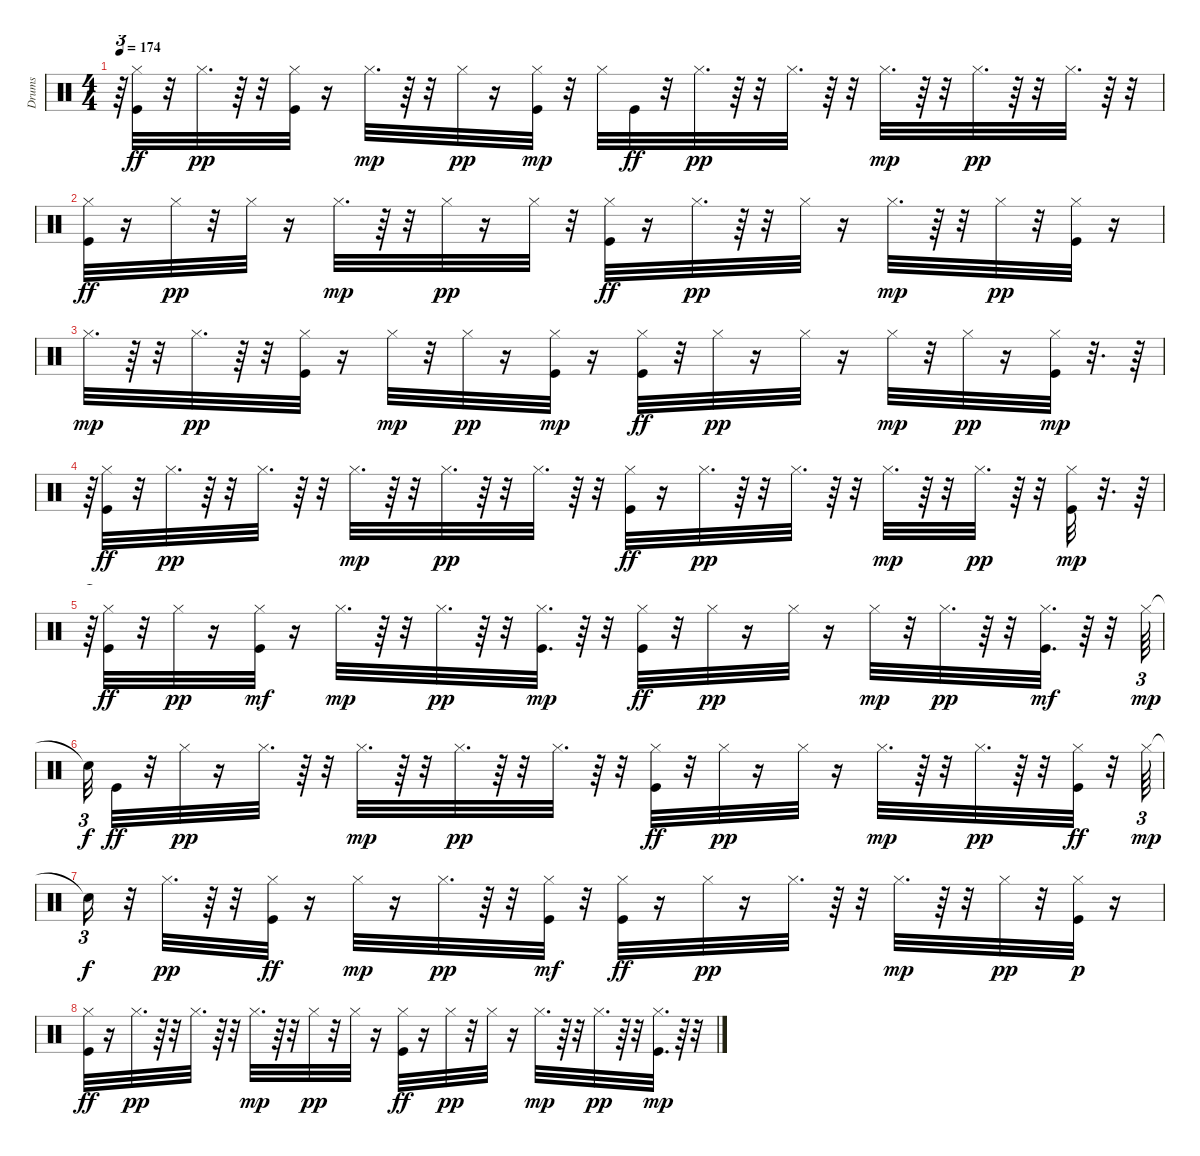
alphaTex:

\track ("Drums" "Drums") {instrument percussion}
\staff {score}
\articulation defaults
\ts (4 4)
\tempo 174
\clef neutral
\ks c
r.64{tu (3 2) dy mp} ("Hi-Hat (closed)" "Kick (hit)").32{dy ff} r.32 "Hi-Hat (closed)".32{d dy pp} r.64 r.32 ("Hi-Hat (closed)" "Kick (hit)").32 r.16 "Hi-Hat (closed)".32{d dy mp} r.64 r.32 "Hi-Hat (closed)".32{dy pp} r.16 ("Hi-Hat (closed)" "Kick (hit)").32{dy mp} r.32 "Hi-Hat (closed)".32 "Kick (hit)".32{dy ff} r.32 "Hi-Hat (closed)".32{d dy pp} r.64 r.32 "Hi-Hat (closed)".32{d} r.64 r.32 "Hi-Hat (closed)".32{d dy mp} r.64 r.32 "Hi-Hat (closed)".32{d dy pp} r.64 r.32 "Hi-Hat (closed)".32{d} r.64 r.32 |
("Hi-Hat (closed)" "Kick (hit)").32{dy ff} r.16 "Hi-Hat (closed)".32{dy pp} r.32 "Hi-Hat (closed)".32 r.16 "Hi-Hat (closed)".32{d dy mp} r.64 r.32 "Hi-Hat (closed)".32{dy pp} r.16 "Hi-Hat (closed)".32 r.32 ("Hi-Hat (closed)" "Kick (hit)").32{dy ff} r.16 "Hi-Hat (closed)".32{d dy pp} r.64 r.32 "Hi-Hat (closed)".32 r.16 "Hi-Hat (closed)".32{d dy mp} r.64 r.32 "Hi-Hat (closed)".32{dy pp} r.32 ("Hi-Hat (closed)" "Kick (hit)").32 r.16 |
"Hi-Hat (closed)".32{d dy mp} r.64 r.32 "Hi-Hat (closed)".32{d dy pp} r.64 r.32 ("Hi-Hat (closed)" "Kick (hit)").32 r.16 "Hi-Hat (closed)".32{dy mp} r.32 "Hi-Hat (closed)".32{dy pp} r.16 ("Hi-Hat (closed)" "Kick (hit)").32{dy mp} r.16 ("Hi-Hat (closed)" "Kick (hit)").32{dy ff} r.32 "Hi-Hat (closed)".32{dy pp} r.16 "Hi-Hat (closed)".32 r.16 "Hi-Hat (closed)".32{dy mp} r.32 "Hi-Hat (closed)".32{dy pp} r.16 ("Hi-Hat (closed)" "Kick (hit)").32{dy mp} r.32{d} r.64 |
r.64{tu (3 2)} ("Hi-Hat (closed)" "Kick (hit)").32{dy ff} r.32 "Hi-Hat (closed)".32{d dy pp} r.64 r.32 "Hi-Hat (closed)".32{d} r.64 r.32 "Hi-Hat (closed)".32{d dy mp} r.64 r.32 "Hi-Hat (closed)".32{d dy pp} r.64 r.32 "Hi-Hat (closed)".32{d} r.64 r.32 ("Hi-Hat (closed)" "Kick (hit)").32{dy ff} r.16 "Hi-Hat (closed)".32{d dy pp} r.64 r.32 "Hi-Hat (closed)".32{d} r.64 r.32 "Hi-Hat (closed)".32{d dy mp} r.64 r.32 "Hi-Hat (closed)".32{d dy pp} r.64 r.32 ("Hi-Hat (closed)" "Kick (hit)").32{dy mp} r.32{d} r.64 |
r.64{tu (3 2)} ("Hi-Hat (closed)" "Kick (hit)").32{dy ff} r.32 "Hi-Hat (closed)".32{dy pp} r.16 ("Hi-Hat (closed)" "Kick (hit)").32{dy mf} r.16 "Hi-Hat (closed)".32{d dy mp} r.64 r.32 "Hi-Hat (closed)".32{d dy pp} r.64 r.32 ("Hi-Hat (closed)" "Kick (hit)").32{d dy mp} r.64 r.32 ("Hi-Hat (closed)" "Kick (hit)").32{dy ff} r.32 "Hi-Hat (closed)".32{dy pp} r.16 "Hi-Hat (closed)".32 r.16 "Hi-Hat (closed)".32{dy mp} r.32 "Hi-Hat (closed)".32{d dy pp} r.64 r.32 ("Hi-Hat (closed)" "Kick (hit)").32{d dy mf} r.64 r.32 "Hi-Hat (closed)".64{tu (3 2) dy mp} |
"Snare (hit)"{t}.32{tu (3 2) dy f} "Kick (hit)".32{dy ff} r.32 "Hi-Hat (closed)".32{dy pp} r.16 "Hi-Hat (closed)".32{d} r.64 r.32 "Hi-Hat (closed)".32{d dy mp} r.64 r.32 "Hi-Hat (closed)".32{d dy pp} r.64 r.32 "Hi-Hat (closed)".32{d} r.64 r.32 ("Hi-Hat (closed)" "Kick (hit)").32{dy ff} r.32 "Hi-Hat (closed)".32{dy pp} r.16 "Hi-Hat (closed)".32 r.16 "Hi-Hat (closed)".32{d dy mp} r.64 r.32 "Hi-Hat (closed)".32{d dy pp} r.64 r.32 ("Hi-Hat (closed)" "Kick (hit)").32{dy ff} r.32 "Hi-Hat (closed)".64{tu (3 2) dy mp} |
"Snare (hit)"{t}.16{tu (3 2) dy f} r.32 "Hi-Hat (closed)".32{d dy pp} r.64 r.32 ("Hi-Hat (closed)" "Kick (hit)").32{dy ff} r.16 "Hi-Hat (closed)".32{dy mp} r.16 "Hi-Hat (closed)".32{d dy pp} r.64 r.32 ("Hi-Hat (closed)" "Kick (hit)").32{dy mf} r.32 ("Hi-Hat (closed)" "Kick (hit)").32{dy ff} r.16 "Hi-Hat (closed)".32{dy pp} r.16 "Hi-Hat (closed)".32{d} r.64 r.32 "Hi-Hat (closed)".32{d dy mp} r.64 r.32 "Hi-Hat (closed)".32{dy pp} r.32 ("Hi-Hat (closed)" "Kick (hit)").32{dy p} r.16 |
("Hi-Hat (closed)" "Kick (hit)").32{dy ff} r.16 "Hi-Hat (closed)".32{d dy pp} r.64 r.32 "Hi-Hat (closed)".32{d} r.64 r.32 "Hi-Hat (closed)".32{d dy mp} r.64 r.32 "Hi-Hat (closed)".32{dy pp} r.32 "Hi-Hat (closed)".32 r.16 ("Hi-Hat (closed)" "Kick (hit)").32{dy ff} r.16 "Hi-Hat (closed)".32{dy pp} r.32 "Hi-Hat (closed)".32 r.16 "Hi-Hat (closed)".32{d dy mp} r.64 r.32 "Hi-Hat (closed)".32{d dy pp} r.64 r.32 ("Hi-Hat (closed)" "Kick (hit)").32{d dy mp} r.64 r.32
